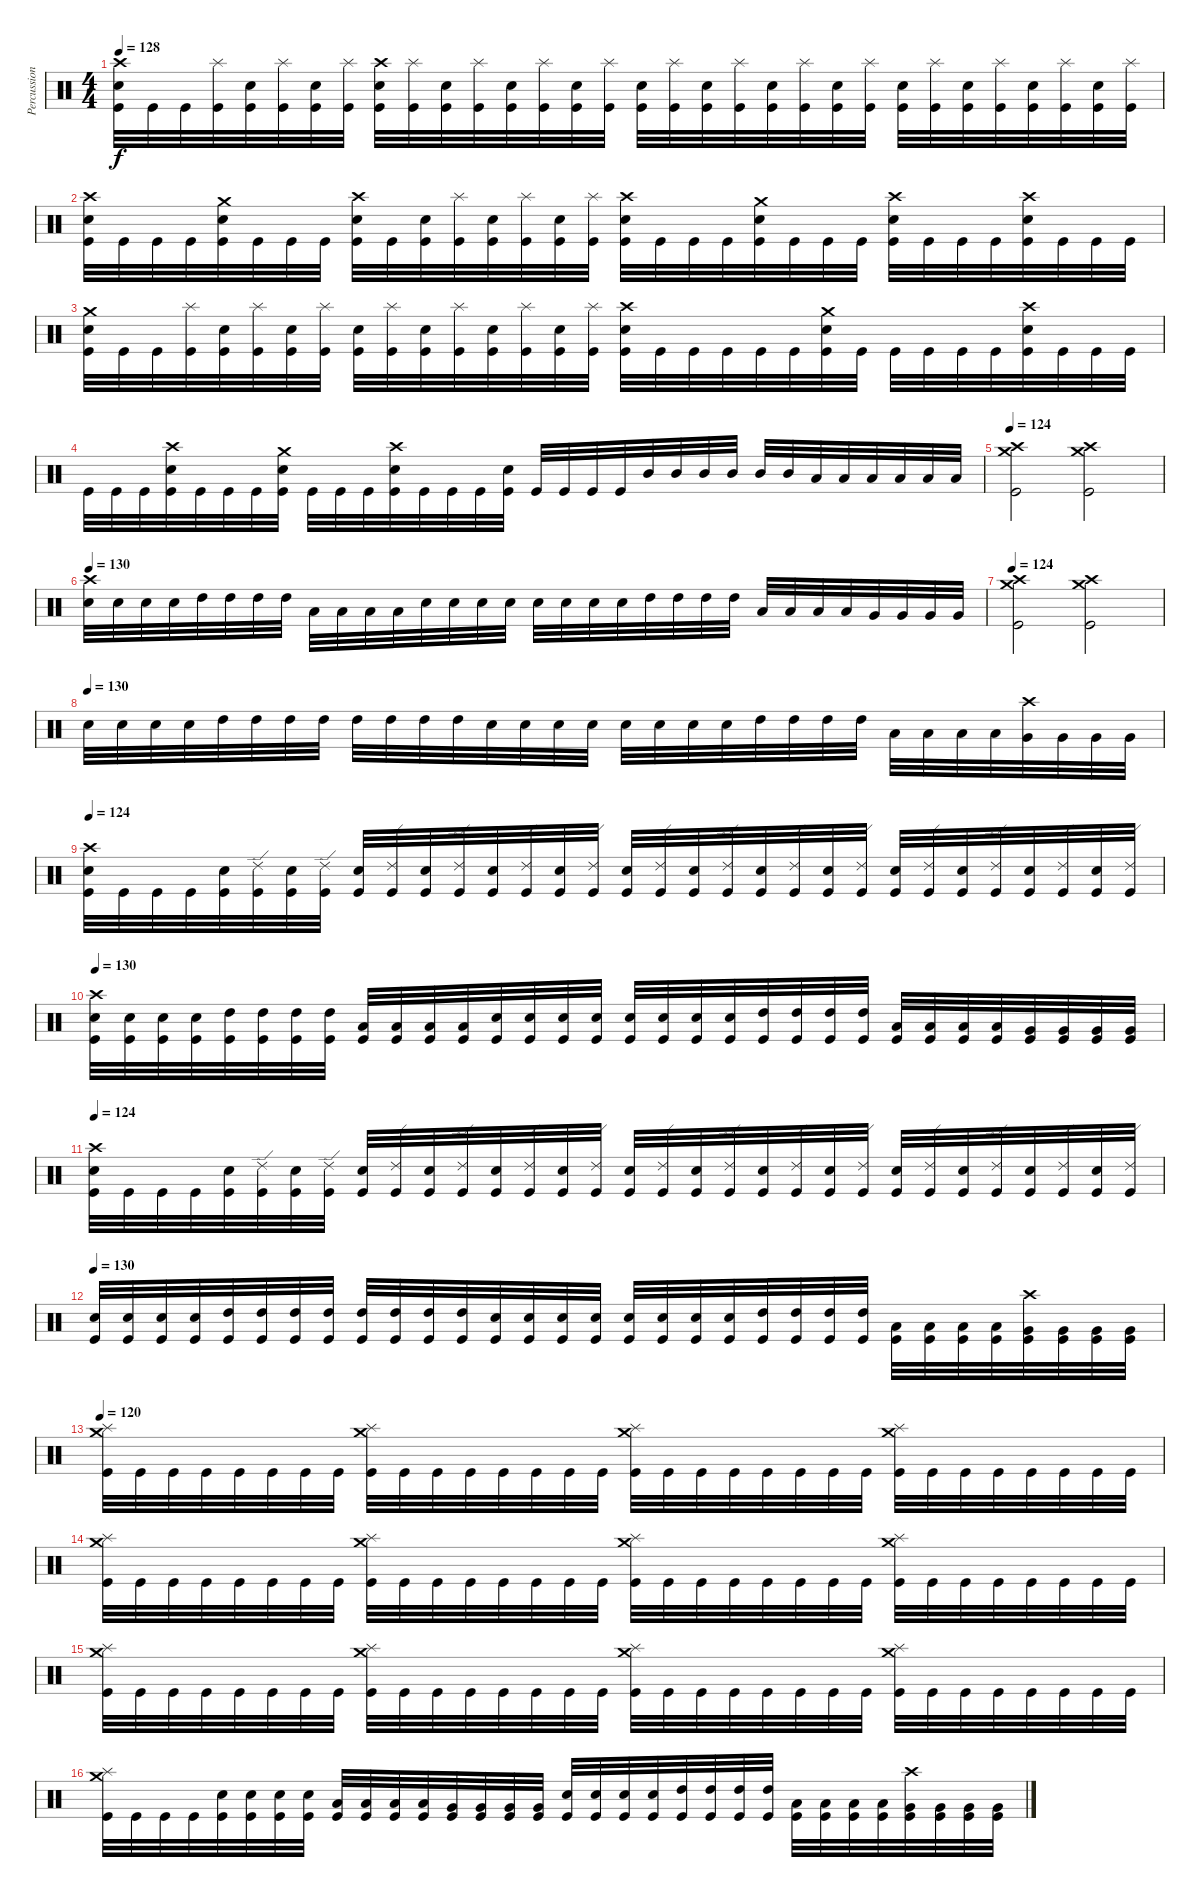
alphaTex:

\track ("Percussion" "Percussion") {instrument percussion}
\staff {score}
\articulation defaults
\ts (4 4)
\tempo 128
\clef neutral
\ks c
("Crash high (hit)" "Electric Snare (hit)" "Kick (hit)").32{dy f} "Kick (hit)".32 "Kick (hit)".32 ("Splash (hit)" "Kick (hit)").32 ("Electric Snare (hit)" "Kick (hit)").32 ("Splash (hit)" "Kick (hit)").32 ("Electric Snare (hit)" "Kick (hit)").32 ("Splash (hit)" "Kick (hit)").32 ("Crash high (hit)" "Electric Snare (hit)" "Kick (hit)").32 ("Splash (hit)" "Kick (hit)").32 ("Electric Snare (hit)" "Kick (hit)").32 ("Splash (hit)" "Kick (hit)").32 ("Electric Snare (hit)" "Kick (hit)").32 ("Splash (hit)" "Kick (hit)").32 ("Electric Snare (hit)" "Kick (hit)").32 ("Splash (hit)" "Kick (hit)").32 ("Electric Snare (hit)" "Kick (hit)").32 ("Splash (hit)" "Kick (hit)").32 ("Electric Snare (hit)" "Kick (hit)").32 ("Splash (hit)" "Kick (hit)").32 ("Electric Snare (hit)" "Kick (hit)").32 ("Splash (hit)" "Kick (hit)").32 ("Electric Snare (hit)" "Kick (hit)").32 ("Splash (hit)" "Kick (hit)").32 ("Electric Snare (hit)" "Kick (hit)").32 ("Splash (hit)" "Kick (hit)").32 ("Electric Snare (hit)" "Kick (hit)").32 ("Splash (hit)" "Kick (hit)").32 ("Electric Snare (hit)" "Kick (hit)").32 ("Splash (hit)" "Kick (hit)").32 ("Electric Snare (hit)" "Kick (hit)").32 ("Splash (hit)" "Kick (hit)").32 |
("Crash high (hit)" "Electric Snare (hit)" "Kick (hit)").32 "Kick (hit)".32 "Kick (hit)".32 "Kick (hit)".32 ("Crash medium (hit)" "Electric Snare (hit)" "Kick (hit)").32 "Kick (hit)".32 "Kick (hit)".32 "Kick (hit)".32 ("Crash high (hit)" "Electric Snare (hit)" "Kick (hit)").32 "Kick (hit)".32 ("Electric Snare (hit)" "Kick (hit)").32 ("Splash (hit)" "Kick (hit)").32 ("Electric Snare (hit)" "Kick (hit)").32 ("Splash (hit)" "Kick (hit)").32 ("Electric Snare (hit)" "Kick (hit)").32 ("Splash (hit)" "Kick (hit)").32 ("Crash high (hit)" "Electric Snare (hit)" "Kick (hit)").32 "Kick (hit)".32 "Kick (hit)".32 "Kick (hit)".32 ("Crash medium (hit)" "Electric Snare (hit)" "Kick (hit)").32 "Kick (hit)".32 "Kick (hit)".32 "Kick (hit)".32 ("Crash high (hit)" "Electric Snare (hit)" "Kick (hit)").32 "Kick (hit)".32 "Kick (hit)".32 "Kick (hit)".32 ("Crash high (hit)" "Electric Snare (hit)" "Kick (hit)").32 "Kick (hit)".32 "Kick (hit)".32 "Kick (hit)".32 |
("Crash medium (hit)" "Electric Snare (hit)" "Kick (hit)").32 "Kick (hit)".32 "Kick (hit)".32 ("Splash (hit)" "Kick (hit)").32 ("Electric Snare (hit)" "Kick (hit)").32 ("Splash (hit)" "Kick (hit)").32 ("Electric Snare (hit)" "Kick (hit)").32 ("Splash (hit)" "Kick (hit)").32 ("Electric Snare (hit)" "Kick (hit)").32 ("Splash (hit)" "Kick (hit)").32 ("Electric Snare (hit)" "Kick (hit)").32 ("Splash (hit)" "Kick (hit)").32 ("Electric Snare (hit)" "Kick (hit)").32 ("Splash (hit)" "Kick (hit)").32 ("Electric Snare (hit)" "Kick (hit)").32 ("Splash (hit)" "Kick (hit)").32 ("Crash high (hit)" "Electric Snare (hit)" "Kick (hit)").32 "Kick (hit)".32 "Kick (hit)".32 "Kick (hit)".32 "Kick (hit)".32 "Kick (hit)".32 ("Crash medium (hit)" "Electric Snare (hit)" "Kick (hit)").32 "Kick (hit)".32 "Kick (hit)".32 "Kick (hit)".32 "Kick (hit)".32 "Kick (hit)".32 ("Crash high (hit)" "Electric Snare (hit)" "Kick (hit)").32 "Kick (hit)".32 "Kick (hit)".32 "Kick (hit)".32 |
"Kick (hit)".32 "Kick (hit)".32 "Kick (hit)".32 ("Crash high (hit)" "Electric Snare (hit)" "Kick (hit)").32 "Kick (hit)".32 "Kick (hit)".32 "Kick (hit)".32 ("Crash medium (hit)" "Electric Snare (hit)" "Kick (hit)").32 "Kick (hit)".32 "Kick (hit)".32 "Kick (hit)".32 ("Crash high (hit)" "Electric Snare (hit)" "Kick (hit)").32 "Kick (hit)".32 "Kick (hit)".32 "Kick (hit)".32 ("Electric Snare (hit)" "Kick (hit)").32 "Kick (hit)".32 "Kick (hit)".32 "Kick (hit)".32 "Kick (hit)".32 "Mid Tom (hit)".32 "Mid Tom (hit)".32 "Mid Tom (hit)".32 "Mid Tom (hit)".32 "Mid Tom (hit)".32 "Mid Tom (hit)".32 "Low Tom (hit)".32 "Low Tom (hit)".32 "Low Tom (hit)".32 "Low Tom (hit)".32 "Low Tom (hit)".32 "Low Tom (hit)".32 |
\tempo 124
("Crash medium (hit)" "Crash high (hit)" "Kick (hit)").2 ("Crash medium (hit)" "Crash high (hit)" "Kick (hit)").2 |
\tempo 130
("Crash high (hit)" "Electric Snare (hit)").32 "Electric Snare (hit)".32 "Electric Snare (hit)".32 "Electric Snare (hit)".32 "High Tom (hit)".32 "High Tom (hit)".32 "High Tom (hit)".32 "High Tom (hit)".32 "Low Tom (hit)".32 "Low Tom (hit)".32 "Low Tom (hit)".32 "Low Tom (hit)".32 "Electric Snare (hit)".32 "Electric Snare (hit)".32 "Electric Snare (hit)".32 "Electric Snare (hit)".32 "Electric Snare (hit)".32 "Electric Snare (hit)".32 "Electric Snare (hit)".32 "Electric Snare (hit)".32 "High Tom (hit)".32 "High Tom (hit)".32 "High Tom (hit)".32 "High Tom (hit)".32 "Low Tom (hit)".32 "Low Tom (hit)".32 "Low Tom (hit)".32 "Low Tom (hit)".32 "Very Low Tom (hit)".32 "Very Low Tom (hit)".32 "Very Low Tom (hit)".32 "Very Low Tom (hit)".32 |
\tempo 124
("Crash medium (hit)" "Crash high (hit)" "Kick (hit)").2 ("Crash medium (hit)" "Crash high (hit)" "Kick (hit)").2 |
\tempo (130)
"Electric Snare (hit)".32 "Electric Snare (hit)".32 "Electric Snare (hit)".32 "Electric Snare (hit)".32 "High Tom (hit)".32 "High Tom (hit)".32 "High Tom (hit)".32 "High Tom (hit)".32 "High Tom (hit)".32 "High Tom (hit)".32 "High Tom (hit)".32 "High Tom (hit)".32 "Electric Snare (hit)".32 "Electric Snare (hit)".32 "Electric Snare (hit)".32 "Electric Snare (hit)".32 "Electric Snare (hit)".32 "Electric Snare (hit)".32 "Electric Snare (hit)".32 "Electric Snare (hit)".32 "High Tom (hit)".32 "High Tom (hit)".32 "High Tom (hit)".32 "High Tom (hit)".32 "Low Tom (hit)".32 "Low Tom (hit)".32 "Low Tom (hit)".32 "Low Tom (hit)".32 ("Crash high (hit)" "Very Low Tom (hit)").32 "Very Low Tom (hit)".32 "Very Low Tom (hit)".32 "Very Low Tom (hit)".32 |
\tempo 124
("Crash high (hit)" "Electric Snare (hit)" "Kick (hit)").32 "Kick (hit)".32 "Kick (hit)".32 "Kick (hit)".32 ("Electric Snare (hit)" "Kick (hit)").32 ("Ride (edge) 2" "Kick (hit)").32 ("Electric Snare (hit)" "Kick (hit)").32 ("Ride (edge) 2" "Kick (hit)").32 ("Electric Snare (hit)" "Kick (hit)").32 ("Ride (edge) 2" "Kick (hit)").32 ("Electric Snare (hit)" "Kick (hit)").32 ("Ride (edge) 2" "Kick (hit)").32 ("Electric Snare (hit)" "Kick (hit)").32 ("Ride (edge) 2" "Kick (hit)").32 ("Electric Snare (hit)" "Kick (hit)").32 ("Ride (edge) 2" "Kick (hit)").32 ("Electric Snare (hit)" "Kick (hit)").32 ("Ride (edge) 2" "Kick (hit)").32 ("Electric Snare (hit)" "Kick (hit)").32 ("Ride (edge) 2" "Kick (hit)").32 ("Electric Snare (hit)" "Kick (hit)").32 ("Ride (edge) 2" "Kick (hit)").32 ("Electric Snare (hit)" "Kick (hit)").32 ("Ride (edge) 2" "Kick (hit)").32 ("Electric Snare (hit)" "Kick (hit)").32 ("Ride (edge) 2" "Kick (hit)").32 ("Electric Snare (hit)" "Kick (hit)").32 ("Ride (edge) 2" "Kick (hit)").32 ("Electric Snare (hit)" "Kick (hit)").32 ("Ride (edge) 2" "Kick (hit)").32 ("Electric Snare (hit)" "Kick (hit)").32 ("Ride (edge) 2" "Kick (hit)").32 |
\tempo 130
("Crash high (hit)" "Electric Snare (hit)" "Kick (hit)").32 ("Electric Snare (hit)" "Kick (hit)").32 ("Electric Snare (hit)" "Kick (hit)").32 ("Electric Snare (hit)" "Kick (hit)").32 ("High Tom (hit)" "Kick (hit)").32 ("High Tom (hit)" "Kick (hit)").32 ("High Tom (hit)" "Kick (hit)").32 ("High Tom (hit)" "Kick (hit)").32 ("Low Tom (hit)" "Kick (hit)").32 ("Low Tom (hit)" "Kick (hit)").32 ("Low Tom (hit)" "Kick (hit)").32 ("Low Tom (hit)" "Kick (hit)").32 ("Electric Snare (hit)" "Kick (hit)").32 ("Electric Snare (hit)" "Kick (hit)").32 ("Electric Snare (hit)" "Kick (hit)").32 ("Electric Snare (hit)" "Kick (hit)").32 ("Electric Snare (hit)" "Kick (hit)").32 ("Electric Snare (hit)" "Kick (hit)").32 ("Electric Snare (hit)" "Kick (hit)").32 ("Electric Snare (hit)" "Kick (hit)").32 ("High Tom (hit)" "Kick (hit)").32 ("High Tom (hit)" "Kick (hit)").32 ("High Tom (hit)" "Kick (hit)").32 ("High Tom (hit)" "Kick (hit)").32 ("Low Tom (hit)" "Kick (hit)").32 ("Low Tom (hit)" "Kick (hit)").32 ("Low Tom (hit)" "Kick (hit)").32 ("Low Tom (hit)" "Kick (hit)").32 ("Very Low Tom (hit)" "Kick (hit)").32 ("Very Low Tom (hit)" "Kick (hit)").32 ("Very Low Tom (hit)" "Kick (hit)").32 ("Very Low Tom (hit)" "Kick (hit)").32 |
\tempo 124
("Crash high (hit)" "Electric Snare (hit)" "Kick (hit)").32 "Kick (hit)".32 "Kick (hit)".32 "Kick (hit)".32 ("Electric Snare (hit)" "Kick (hit)").32 ("Ride (edge) 2" "Kick (hit)").32 ("Electric Snare (hit)" "Kick (hit)").32 ("Ride (edge) 2" "Kick (hit)").32 ("Electric Snare (hit)" "Kick (hit)").32 ("Ride (edge) 2" "Kick (hit)").32 ("Electric Snare (hit)" "Kick (hit)").32 ("Ride (edge) 2" "Kick (hit)").32 ("Electric Snare (hit)" "Kick (hit)").32 ("Ride (edge) 2" "Kick (hit)").32 ("Electric Snare (hit)" "Kick (hit)").32 ("Ride (edge) 2" "Kick (hit)").32 ("Electric Snare (hit)" "Kick (hit)").32 ("Ride (edge) 2" "Kick (hit)").32 ("Electric Snare (hit)" "Kick (hit)").32 ("Ride (edge) 2" "Kick (hit)").32 ("Electric Snare (hit)" "Kick (hit)").32 ("Ride (edge) 2" "Kick (hit)").32 ("Electric Snare (hit)" "Kick (hit)").32 ("Ride (edge) 2" "Kick (hit)").32 ("Electric Snare (hit)" "Kick (hit)").32 ("Ride (edge) 2" "Kick (hit)").32 ("Electric Snare (hit)" "Kick (hit)").32 ("Ride (edge) 2" "Kick (hit)").32 ("Electric Snare (hit)" "Kick (hit)").32 ("Ride (edge) 2" "Kick (hit)").32 ("Electric Snare (hit)" "Kick (hit)").32 ("Ride (edge) 2" "Kick (hit)").32 |
\tempo 130
("Electric Snare (hit)" "Kick (hit)").32 ("Electric Snare (hit)" "Kick (hit)").32 ("Electric Snare (hit)" "Kick (hit)").32 ("Electric Snare (hit)" "Kick (hit)").32 ("High Tom (hit)" "Kick (hit)").32 ("High Tom (hit)" "Kick (hit)").32 ("High Tom (hit)" "Kick (hit)").32 ("High Tom (hit)" "Kick (hit)").32 ("High Tom (hit)" "Kick (hit)").32 ("High Tom (hit)" "Kick (hit)").32 ("High Tom (hit)" "Kick (hit)").32 ("High Tom (hit)" "Kick (hit)").32 ("Electric Snare (hit)" "Kick (hit)").32 ("Electric Snare (hit)" "Kick (hit)").32 ("Electric Snare (hit)" "Kick (hit)").32 ("Electric Snare (hit)" "Kick (hit)").32 ("Electric Snare (hit)" "Kick (hit)").32 ("Electric Snare (hit)" "Kick (hit)").32 ("Electric Snare (hit)" "Kick (hit)").32 ("Electric Snare (hit)" "Kick (hit)").32 ("High Tom (hit)" "Kick (hit)").32 ("High Tom (hit)" "Kick (hit)").32 ("High Tom (hit)" "Kick (hit)").32 ("High Tom (hit)" "Kick (hit)").32 ("Low Tom (hit)" "Kick (hit)").32 ("Low Tom (hit)" "Kick (hit)").32 ("Low Tom (hit)" "Kick (hit)").32 ("Low Tom (hit)" "Kick (hit)").32 ("Crash high (hit)" "Very Low Tom (hit)" "Kick (hit)").32 ("Very Low Tom (hit)" "Kick (hit)").32 ("Very Low Tom (hit)" "Kick (hit)").32 ("Very Low Tom (hit)" "Kick (hit)").32 |
\tempo 120
("Crash medium (hit)" "Splash (hit)" "Kick (hit)").32 "Kick (hit)".32 "Kick (hit)".32 "Kick (hit)".32 "Kick (hit)".32 "Kick (hit)".32 "Kick (hit)".32 "Kick (hit)".32 ("Crash medium (hit)" "Splash (hit)" "Kick (hit)").32 "Kick (hit)".32 "Kick (hit)".32 "Kick (hit)".32 "Kick (hit)".32 "Kick (hit)".32 "Kick (hit)".32 "Kick (hit)".32 ("Crash medium (hit)" "Splash (hit)" "Kick (hit)").32 "Kick (hit)".32 "Kick (hit)".32 "Kick (hit)".32 "Kick (hit)".32 "Kick (hit)".32 "Kick (hit)".32 "Kick (hit)".32 ("Crash medium (hit)" "Splash (hit)" "Kick (hit)").32 "Kick (hit)".32 "Kick (hit)".32 "Kick (hit)".32 "Kick (hit)".32 "Kick (hit)".32 "Kick (hit)".32 "Kick (hit)".32 |
("Crash medium (hit)" "Splash (hit)" "Kick (hit)").32 "Kick (hit)".32 "Kick (hit)".32 "Kick (hit)".32 "Kick (hit)".32 "Kick (hit)".32 "Kick (hit)".32 "Kick (hit)".32 ("Crash medium (hit)" "Splash (hit)" "Kick (hit)").32 "Kick (hit)".32 "Kick (hit)".32 "Kick (hit)".32 "Kick (hit)".32 "Kick (hit)".32 "Kick (hit)".32 "Kick (hit)".32 ("Crash medium (hit)" "Splash (hit)" "Kick (hit)").32 "Kick (hit)".32 "Kick (hit)".32 "Kick (hit)".32 "Kick (hit)".32 "Kick (hit)".32 "Kick (hit)".32 "Kick (hit)".32 ("Crash medium (hit)" "Splash (hit)" "Kick (hit)").32 "Kick (hit)".32 "Kick (hit)".32 "Kick (hit)".32 "Kick (hit)".32 "Kick (hit)".32 "Kick (hit)".32 "Kick (hit)".32 |
("Crash medium (hit)" "Splash (hit)" "Kick (hit)").32 "Kick (hit)".32 "Kick (hit)".32 "Kick (hit)".32 "Kick (hit)".32 "Kick (hit)".32 "Kick (hit)".32 "Kick (hit)".32 ("Crash medium (hit)" "Splash (hit)" "Kick (hit)").32 "Kick (hit)".32 "Kick (hit)".32 "Kick (hit)".32 "Kick (hit)".32 "Kick (hit)".32 "Kick (hit)".32 "Kick (hit)".32 ("Crash medium (hit)" "Splash (hit)" "Kick (hit)").32 "Kick (hit)".32 "Kick (hit)".32 "Kick (hit)".32 "Kick (hit)".32 "Kick (hit)".32 "Kick (hit)".32 "Kick (hit)".32 ("Crash medium (hit)" "Splash (hit)" "Kick (hit)").32 "Kick (hit)".32 "Kick (hit)".32 "Kick (hit)".32 "Kick (hit)".32 "Kick (hit)".32 "Kick (hit)".32 "Kick (hit)".32 |
("Crash medium (hit)" "Splash (hit)" "Kick (hit)").32 "Kick (hit)".32 "Kick (hit)".32 "Kick (hit)".32 ("Electric Snare (hit)" "Kick (hit)").32 ("Electric Snare (hit)" "Kick (hit)").32 ("Electric Snare (hit)" "Kick (hit)").32 ("Electric Snare (hit)" "Kick (hit)").32 ("Low Tom (hit)" "Kick (hit)").32 ("Low Tom (hit)" "Kick (hit)").32 ("Low Tom (hit)" "Kick (hit)").32 ("Low Tom (hit)" "Kick (hit)").32 ("Very Low Tom (hit)" "Kick (hit)").32 ("Very Low Tom (hit)" "Kick (hit)").32 ("Very Low Tom (hit)" "Kick (hit)").32 ("Very Low Tom (hit)" "Kick (hit)").32 ("Electric Snare (hit)" "Kick (hit)").32 ("Electric Snare (hit)" "Kick (hit)").32 ("Electric Snare (hit)" "Kick (hit)").32 ("Electric Snare (hit)" "Kick (hit)").32 ("High Tom (hit)" "Kick (hit)").32 ("High Tom (hit)" "Kick (hit)").32 ("High Tom (hit)" "Kick (hit)").32 ("High Tom (hit)" "Kick (hit)").32 ("Low Tom (hit)" "Kick (hit)").32 ("Low Tom (hit)" "Kick (hit)").32 ("Low Tom (hit)" "Kick (hit)").32 ("Low Tom (hit)" "Kick (hit)").32 ("Crash high (hit)" "Very Low Tom (hit)" "Kick (hit)").32 ("Very Low Tom (hit)" "Kick (hit)").32 ("Very Low Tom (hit)" "Kick (hit)").32 ("Very Low Tom (hit)" "Kick (hit)").32
